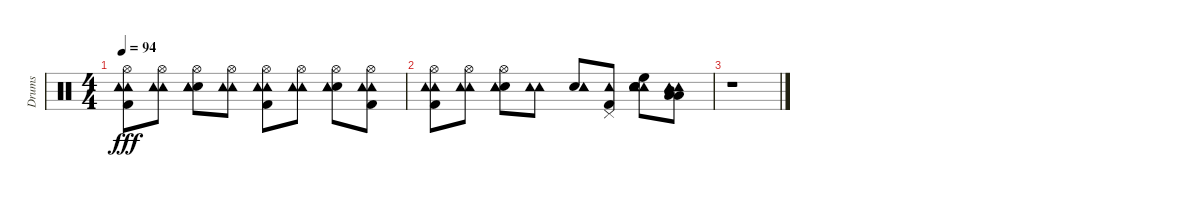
\track ("Drums" "Drums") {instrument percussion}
\staff {score}
\articulation defaults
\ts (4 4)
\tempo 94
\clef neutral
\ks c
("Hi-Hat (open)" "Kick (hit) 2" "Tambourine (hit)" "Tambourine (hit)").8{dy fff} ("Hi-Hat (open)" "Tambourine (hit)" "Tambourine (hit)").8 ("Hi-Hat (open)" "Snare (hit) 2" "Tambourine (hit)" "Tambourine (hit)").8 ("Hi-Hat (open)" "Tambourine (hit)" "Tambourine (hit)").8 ("Hi-Hat (open)" "Kick (hit) 2" "Tambourine (hit)" "Tambourine (hit)").8 ("Hi-Hat (open)" "Tambourine (hit)" "Tambourine (hit)").8 ("Hi-Hat (open)" "Snare (hit) 2" "Tambourine (hit)" "Tambourine (hit)").8 ("Hi-Hat (open)" "Kick (hit) 2" "Tambourine (hit)" "Tambourine (hit)").8 |
("Hi-Hat (open)" "Kick (hit) 2" "Tambourine (hit)" "Tambourine (hit)").8 ("Hi-Hat (open)" "Tambourine (hit)" "Tambourine (hit)").8 ("Hi-Hat (open)" "Snare (hit) 2" "Tambourine (hit)" "Tambourine (hit)").8 ("Tambourine (hit)" "Tambourine (hit)").8 ("Electric Snare (hit)" "Tambourine (hit)" "Tambourine (hit)").8 ("Pedal Hi-Hat (hit)" "Tambourine (hit)" "Kick (hit) 2").8 ("Tambourine (hit)" "Electric Snare (hit)" "High Floor Tom (hit)" "Electric Snare (hit)" "Tambourine (hit)").8 ("Mid Tom (hit)" "Low Floor Tom (hit)" "Tambourine (hit)" "Low Floor Tom (hit)" "Tambourine (hit)").8 |
r.1
